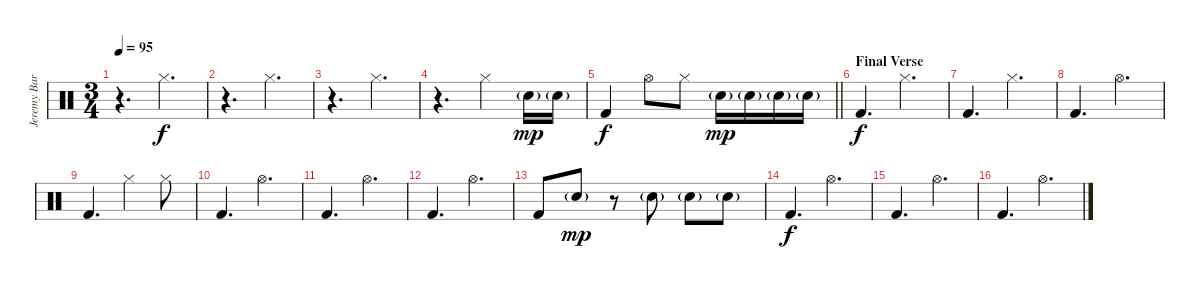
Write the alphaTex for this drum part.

\track ("Jeremy Barnes - Drums" "Jeremy Bar") {instrument percussion}
\staff {score}
\articulation defaults
\ts (3 4)
\tempo 95
\clef neutral
\ks c
r.4{d dy f} "Hi-Hat (closed)".4{d} |
r.4{d} "Hi-Hat (closed)".4{d} |
r.4{d} "Hi-Hat (closed)".4{d} |
r.4{d} "Hi-Hat (closed)".4 "Electric Snare (hit)"{g}.16{dy mp} "Electric Snare (hit)"{g}.16 |
\barLineRight lightlight "Kick (hit) 2".4{dy f} "Hi-Hat (open)".8 "Hi-Hat (closed)".8 "Electric Snare (hit)"{g}.16{dy mp} "Electric Snare (hit)"{g}.16 "Electric Snare (hit)"{g}.16 "Electric Snare (hit)"{g}.16
|
\section ("" "Final Verse")
"Kick (hit) 2".4{d dy f} "Hi-Hat (closed)".4{d} |
"Kick (hit) 2".4{d} "Hi-Hat (closed)".4{d} |
"Kick (hit) 2".4{d} "Hi-Hat (open)".4{d} |
"Kick (hit) 2".4{d} "Hi-Hat (closed)".4 "Hi-Hat (closed)".8 |
"Kick (hit) 2".4{d} "Hi-Hat (open)".4{d} |
"Kick (hit) 2".4{d} "Hi-Hat (open)".4{d} |
"Kick (hit) 2".4{d} "Hi-Hat (open)".4{d} |
"Kick (hit) 2".8 "Electric Snare (hit)"{g}.8{dy mp} r.8 "Electric Snare (hit)"{g}.8 "Electric Snare (hit)"{g}.8 "Electric Snare (hit)"{g}.8 |
"Kick (hit) 2".4{d dy f} "Hi-Hat (open)".4{d} |
"Kick (hit) 2".4{d} "Hi-Hat (open)".4{d} |
"Kick (hit) 2".4{d} "Hi-Hat (open)".4{d}
